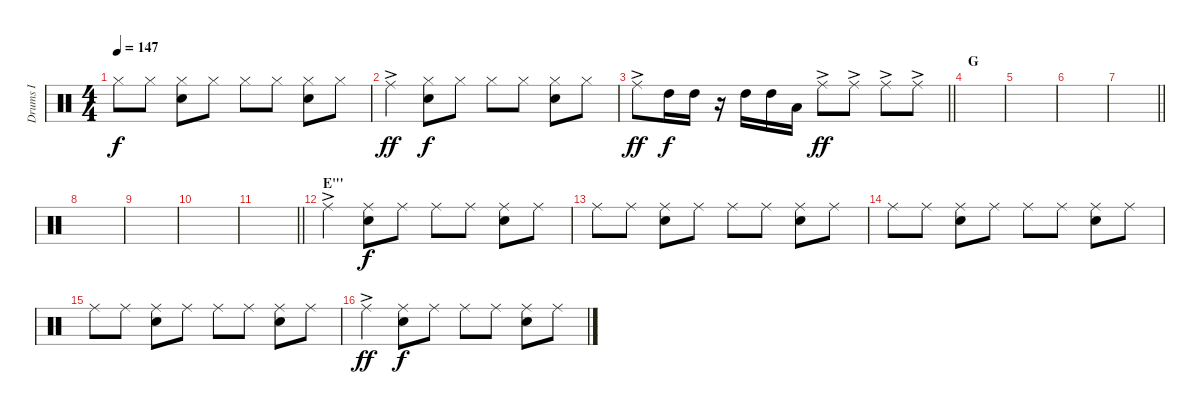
\track ("Drums I" "Drums I") {instrument percussion}
\staff {score}
\articulation defaults
\ts (4 4)
\tempo 147
\clef neutral
\ks c "Hi-Hat (closed)".8{dy f} "Hi-Hat (closed)".8
("Hi-Hat (closed)" "Snare (hit) 2").8 "Hi-Hat (closed)".8 "Hi-Hat (closed)".8 "Hi-Hat (closed)".8 ("Hi-Hat (closed)" "Snare (hit) 2").8 "Hi-Hat (closed)".8 |
"Ride (middle)"{ac}.4{dy ff} ("Hi-Hat (closed)" "Snare (hit) 2").8{dy f} "Hi-Hat (closed)".8 "Hi-Hat (closed)".8 "Hi-Hat (closed)".8 ("Hi-Hat (closed)" "Snare (hit) 2").8 "Hi-Hat (closed)".8 |
\barLineRight lightlight "Ride (middle)"{ac}.8{dy ff} "High Tom (hit)".16{dy f} "High Tom (hit)".16
r.16 "High Tom (hit)".16 "High Tom (hit)".16 "Low Tom (hit)".16 "Ride (middle)"{ac}.8{dy ff} "Ride (middle)"{ac}.8 "Ride (middle)"{ac}.8 "Ride (middle)"{ac}.8 |
\section ("" "G")
|
|
|
\barLineRight lightlight
|
\section ("" "")
|
|
|
\barLineRight lightlight
|
\section ("" "E\"'")
"Ride (middle)"{ac}.4 ("Ride (middle)" "Snare (hit) 2").8{dy f} "Ride (middle)".8 "Ride (middle)".8 "Ride (middle)".8 ("Ride (middle)" "Snare (hit) 2").8 "Ride (middle)".8 |
"Ride (middle)".8 "Ride (middle)".8 ("Ride (middle)" "Snare (hit) 2").8 "Ride (middle)".8 "Ride (middle)".8 "Ride (middle)".8 ("Ride (middle)" "Snare (hit) 2").8 "Ride (middle)".8 |
"Ride (middle)".8 "Ride (middle)".8 ("Ride (middle)" "Snare (hit) 2").8 "Ride (middle)".8 "Ride (middle)".8 "Ride (middle)".8 ("Ride (middle)" "Snare (hit) 2").8 "Ride (middle)".8 |
"Ride (middle)".8 "Ride (middle)".8 ("Ride (middle)" "Snare (hit) 2").8 "Ride (middle)".8 "Ride (middle)".8 "Ride (middle)".8 ("Ride (middle)" "Snare (hit) 2").8 "Ride (middle)".8 |
"Ride (middle)"{ac}.4{dy ff} ("Ride (middle)" "Snare (hit) 2").8{dy f} "Ride (middle)".8 "Ride (middle)".8 "Ride (middle)".8 ("Ride (middle)" "Snare (hit) 2").8 "Ride (middle)".8
